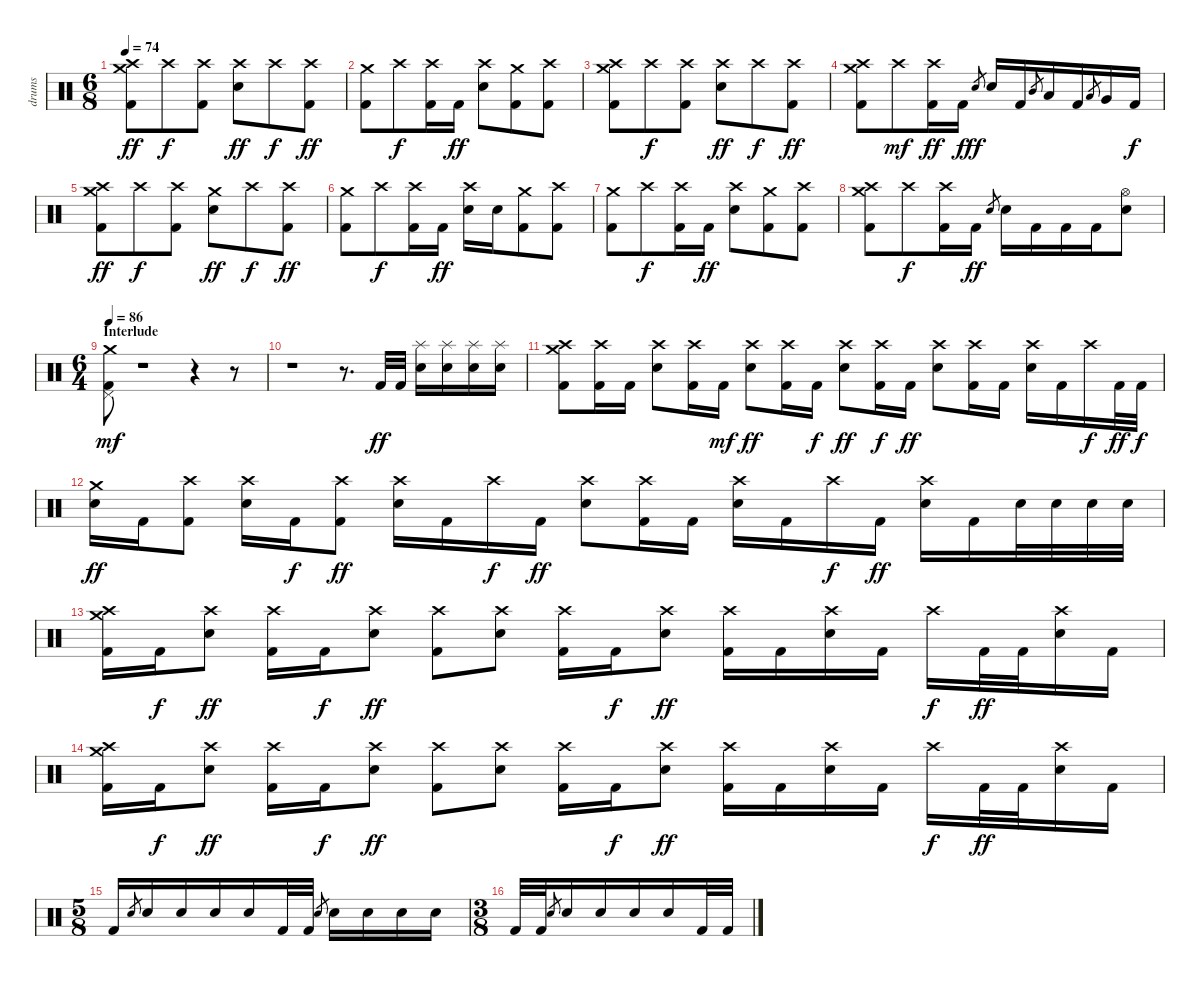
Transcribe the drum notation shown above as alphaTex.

\track ("drums" "drums") {instrument percussion}
\staff {score}
\articulation defaults
\ts (6 8)
\tempo 74
\clef neutral
\ks c
("Crash high (hit)" "Crash medium (hit)" "Kick (hit) 2").8{dy ff} "Crash high (hit)".8{dy f} ("Crash high (hit)" "Kick (hit) 2").8 ("Crash high (hit)" "Snare (hit) 2").8{dy ff} "Crash high (hit)".8{dy f} ("Crash high (hit)" "Kick (hit) 2").8{dy ff} |
("Crash medium (hit)" "Kick (hit) 2").8 "Crash high (hit)".8{dy f} ("Crash high (hit)" "Kick (hit) 2").16 "Kick (hit) 2".16{dy ff} ("Crash high (hit)" "Snare (hit) 2").8 ("Crash medium (hit)" "Kick (hit) 2").8 ("Crash high (hit)" "Kick (hit) 2").8 |
("Crash high (hit)" "Crash medium (hit)" "Kick (hit) 2").8 "Crash high (hit)".8{dy f} ("Crash high (hit)" "Kick (hit) 2").8 ("Crash high (hit)" "Snare (hit) 2").8{dy ff} "Crash high (hit)".8{dy f} ("Crash high (hit)" "Kick (hit) 2").8{dy ff} |
("Crash medium (hit)" "Crash high (hit)" "Kick (hit) 2").8 "Crash high (hit)".8{dy mf} ("Crash high (hit)" "Kick (hit) 2").16{dy ff} "Kick (hit) 2".16{dy f} "Snare (hit) 2".8{gr dy ff} "Snare (hit) 2".16 "Kick (hit) 2".16 "Mid Tom (hit)".8{gr} "Low Tom (hit)".16 "Kick (hit) 2".16 "Low Tom (hit)".8{gr} "Very Low Tom (hit)".16 "Kick (hit) 2".16{dy f} |
("Crash high (hit)" "Crash medium (hit)" "Kick (hit) 2").8{dy ff} "Crash high (hit)".8{dy f} ("Crash high (hit)" "Kick (hit) 2").8 ("Crash medium (hit)" "Snare (hit) 2").8{dy ff} "Crash high (hit)".8{dy f} ("Crash high (hit)" "Kick (hit) 2").8{dy ff} |
("Crash medium (hit)" "Kick (hit) 2").8 "Crash high (hit)".8{dy f} ("Crash high (hit)" "Kick (hit) 2").16 "Kick (hit) 2".16{dy ff} ("Crash high (hit)" "Snare (hit) 2").16 "Snare (hit) 2".16 ("Crash medium (hit)" "Kick (hit) 2").8 ("Crash high (hit)" "Kick (hit) 2").8 |
("Crash medium (hit)" "Kick (hit) 2").8 "Crash high (hit)".8{dy f} ("Crash high (hit)" "Kick (hit) 2").16 "Kick (hit) 2".16{dy ff} ("Crash high (hit)" "Snare (hit) 2").8 ("Crash medium (hit)" "Kick (hit) 2").8 ("Crash high (hit)" "Kick (hit) 2").8 |
("Crash high (hit)" "Crash medium (hit)" "Kick (hit) 2").8 "Crash high (hit)".8{dy f} ("Crash high (hit)" "Kick (hit) 2").16 "Kick (hit) 2".16{dy ff} "Snare (hit) 2".8{gr} "Snare (hit) 2".16 "Kick (hit) 2".16 "Kick (hit) 2".16 "Kick (hit) 2".16 ("Hi-Hat (open)" "Snare (hit) 2").8 |
\ts (6 4)
\section ("" "Interlude")
\tempo 86
("Crash medium (hit)" "Kick (hit) 2" "Pedal Hi-Hat (hit)").8{dy mf} r.1 r.4 r.8 |
r.1 r.8{d} "Kick (hit) 2".32{dy ff} "Kick (hit) 2".32 ("Splash (hit)" "Snare (hit) 2").16 ("Splash (hit)" "Snare (hit) 2").16 ("Splash (hit)" "Snare (hit) 2").16 ("Splash (hit)" "Snare (hit) 2").16 |
("Crash medium (hit)" "Crash high (hit)" "Kick (hit) 2").8 ("Crash high (hit)" "Kick (hit) 2").16 "Kick (hit) 2".16 ("Crash high (hit)" "Snare (hit) 2").8 ("Crash high (hit)" "Kick (hit) 2").16 "Kick (hit) 2".16{dy mf} ("Crash high (hit)" "Snare (hit) 2").8{dy ff} ("Crash high (hit)" "Kick (hit) 2").16 "Kick (hit) 2".16{dy f} ("Crash high (hit)" "Snare (hit) 2").8{dy ff} ("Crash high (hit)" "Kick (hit) 2").16{dy f} "Kick (hit) 2".16{dy ff} ("Crash high (hit)" "Snare (hit) 2").8 ("Crash high (hit)" "Kick (hit) 2").16 "Kick (hit) 2".16 ("Crash high (hit)" "Snare (hit) 2").16 "Kick (hit) 2".16 "Crash high (hit)".16{dy f} "Kick (hit) 2".32{dy ff} "Kick (hit) 2".32{dy f} |
("Crash medium (hit)" "Snare (hit) 2").16{dy ff} "Kick (hit) 2".16 ("Crash high (hit)" "Kick (hit) 2").8 ("Crash high (hit)" "Snare (hit) 2").16 "Kick (hit) 2".16{dy f} ("Crash high (hit)" "Kick (hit) 2").8{dy ff} ("Crash high (hit)" "Snare (hit) 2").16 "Kick (hit) 2".16 "Crash high (hit)".16{dy f} "Kick (hit) 2".16{dy ff} ("Crash high (hit)" "Snare (hit) 2").8 ("Crash high (hit)" "Kick (hit) 2").16 "Kick (hit) 2".16 ("Crash high (hit)" "Snare (hit) 2").16 "Kick (hit) 2".16 "Crash high (hit)".16{dy f} "Kick (hit) 2".16{dy ff} ("Crash high (hit)" "Snare (hit) 2").16 "Kick (hit) 2".16 "Snare (hit) 2".32 "Snare (hit) 2".32 "Snare (hit) 2".32 "Snare (hit) 2".32 |
("Crash medium (hit)" "Crash high (hit)" "Kick (hit) 2").16 "Kick (hit) 2".16{dy f} ("Crash high (hit)" "Snare (hit) 2").8{dy ff} ("Crash high (hit)" "Kick (hit) 2").16 "Kick (hit) 2".16{dy f} ("Crash high (hit)" "Snare (hit) 2").8{dy ff} ("Crash high (hit)" "Kick (hit) 2").8 ("Crash high (hit)" "Snare (hit) 2").8 ("Crash high (hit)" "Kick (hit) 2").16 "Kick (hit) 2".16{dy f} ("Crash high (hit)" "Snare (hit) 2").8{dy ff} ("Crash high (hit)" "Kick (hit) 2").16 "Kick (hit) 2".16 ("Crash high (hit)" "Snare (hit) 2").16 "Kick (hit) 2".16 "Crash high (hit)".16{dy f} "Kick (hit) 2".32{dy ff} "Kick (hit) 2".32 ("Crash high (hit)" "Snare (hit) 2").16 "Kick (hit) 2".16 |
("Crash medium (hit)" "Crash high (hit)" "Kick (hit) 2").16 "Kick (hit) 2".16{dy f} ("Crash high (hit)" "Snare (hit) 2").8{dy ff} ("Crash high (hit)" "Kick (hit) 2").16 "Kick (hit) 2".16{dy f} ("Crash high (hit)" "Snare (hit) 2").8{dy ff} ("Crash high (hit)" "Kick (hit) 2").8 ("Crash high (hit)" "Snare (hit) 2").8 ("Crash high (hit)" "Kick (hit) 2").16 "Kick (hit) 2".16{dy f} ("Crash high (hit)" "Snare (hit) 2").8{dy ff} ("Crash high (hit)" "Kick (hit) 2").16 "Kick (hit) 2".16 ("Crash high (hit)" "Snare (hit) 2").16 "Kick (hit) 2".16 "Crash high (hit)".16{dy f} "Kick (hit) 2".32{dy ff} "Kick (hit) 2".32 ("Crash high (hit)" "Snare (hit) 2").16 "Kick (hit) 2".16 |
\ts (5 8)
"Kick (hit) 2".16 "Snare (hit) 2".8{gr} "Snare (hit) 2".16 "Snare (hit) 2".16 "Snare (hit) 2".16 "Snare (hit) 2".16 "Kick (hit) 2".32 "Kick (hit) 2".32 "Snare (hit) 2".8{gr} "Snare (hit) 2".16 "Snare (hit) 2".16 "Snare (hit) 2".16 "Snare (hit) 2".16 |
\ts (3 8)
"Kick (hit) 2".32 "Kick (hit) 2".32 "Snare (hit) 2".8{gr} "Snare (hit) 2".16 "Snare (hit) 2".16 "Snare (hit) 2".16 "Snare (hit) 2".16 "Kick (hit) 2".32 "Kick (hit) 2".32
